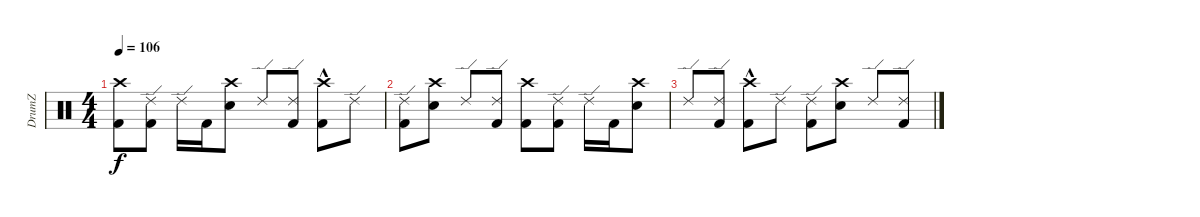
\track ("DrumZ" "DrumZ") {instrument percussion}
\staff {score}
\articulation defaults
\ts (4 4)
\tempo 106
\clef neutral
\ks c
("Crash high (hit)" "Kick (hit) 2").8{dy f} ("Ride (edge) 2" "Kick (hit) 2").8 "Ride (edge) 2".16 "Kick (hit) 2".16 ("Crash high (hit)" "Electric Snare (hit)").8 "Ride (edge) 2".8 ("Ride (edge) 2" "Kick (hit) 2").8 ("Kick (hit) 2"{hac} "Crash high (hit)").8 "Ride (edge) 2".8 |
("Kick (hit) 2" "Ride (edge) 2").8 ("Crash high (hit)" "Electric Snare (hit)").8 "Ride (edge) 2".8 ("Ride (edge) 2" "Kick (hit) 2").8 ("Crash high (hit)" "Kick (hit) 2").8 ("Ride (edge) 2" "Kick (hit) 2").8 "Ride (edge) 2".16 "Kick (hit) 2".16 ("Crash high (hit)" "Electric Snare (hit)").8 |
"Ride (edge) 2".8 ("Ride (edge) 2" "Kick (hit) 2").8 ("Kick (hit) 2"{hac} "Crash high (hit)").8 "Ride (edge) 2".8 ("Kick (hit) 2" "Ride (edge) 2").8 ("Crash high (hit)" "Electric Snare (hit)").8 "Ride (edge) 2".8 ("Ride (edge) 2" "Kick (hit) 2").8
